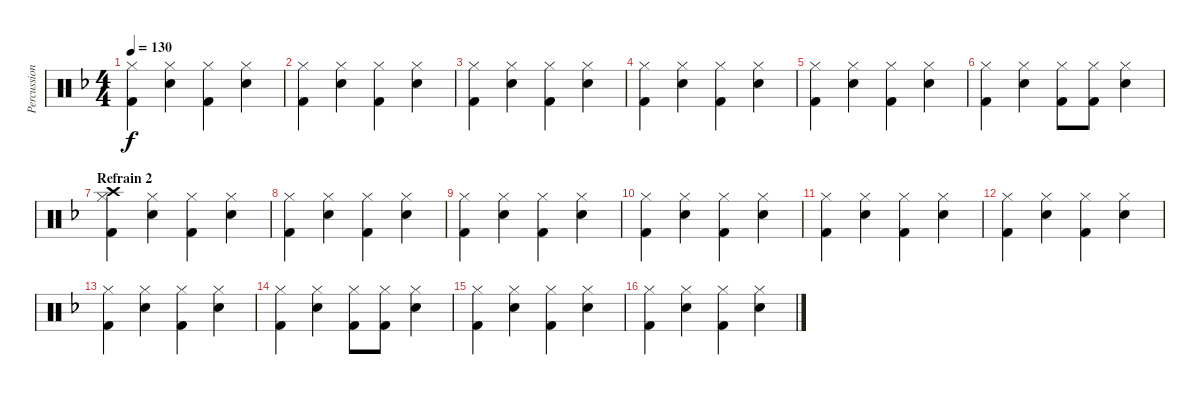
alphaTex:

\track ("Percussions" "Percussion") {instrument percussion}
\staff {score}
\articulation defaults
\ts (4 4)
\tempo 130
\clef neutral
\ks f
("Kick (hit) 2" "Hi-Hat (closed)").4{dy f} ("Snare (hit) 2" "Hi-Hat (closed)").4 ("Kick (hit) 2" "Hi-Hat (closed)").4 ("Snare (hit) 2" "Hi-Hat (closed)").4 |
("Kick (hit) 2" "Hi-Hat (closed)").4 ("Snare (hit) 2" "Hi-Hat (closed)").4 ("Kick (hit) 2" "Hi-Hat (closed)").4 ("Snare (hit) 2" "Hi-Hat (closed)").4 |
("Kick (hit) 2" "Hi-Hat (closed)").4 ("Snare (hit) 2" "Hi-Hat (closed)").4 ("Kick (hit) 2" "Hi-Hat (closed)").4 ("Snare (hit) 2" "Hi-Hat (closed)").4 |
("Kick (hit) 2" "Hi-Hat (closed)").4 ("Snare (hit) 2" "Hi-Hat (closed)").4 ("Kick (hit) 2" "Hi-Hat (closed)").4 ("Snare (hit) 2" "Hi-Hat (closed)").4 |
("Kick (hit) 2" "Hi-Hat (closed)").4 ("Snare (hit) 2" "Hi-Hat (closed)").4 ("Kick (hit) 2" "Hi-Hat (closed)").4 ("Snare (hit) 2" "Hi-Hat (closed)").4 |
("Kick (hit) 2" "Hi-Hat (closed)").4 ("Snare (hit) 2" "Hi-Hat (closed)").4 ("Kick (hit) 2" "Hi-Hat (closed)").8 ("Kick (hit) 2" "Hi-Hat (closed)").8 ("Snare (hit) 2" "Hi-Hat (closed)").4 |
\section ("" "Refrain 2")
("Kick (hit) 2" "Hi-Hat (closed)" "Crash high (hit)").4 ("Snare (hit) 2" "Hi-Hat (closed)").4 ("Kick (hit) 2" "Hi-Hat (closed)").4 ("Snare (hit) 2" "Hi-Hat (closed)").4 |
("Kick (hit) 2" "Hi-Hat (closed)").4 ("Snare (hit) 2" "Hi-Hat (closed)").4 ("Kick (hit) 2" "Hi-Hat (closed)").4 ("Snare (hit) 2" "Hi-Hat (closed)").4 |
("Kick (hit) 2" "Hi-Hat (closed)").4 ("Snare (hit) 2" "Hi-Hat (closed)").4 ("Kick (hit) 2" "Hi-Hat (closed)").4 ("Snare (hit) 2" "Hi-Hat (closed)").4 |
("Kick (hit) 2" "Hi-Hat (closed)").4 ("Snare (hit) 2" "Hi-Hat (closed)").4 ("Kick (hit) 2" "Hi-Hat (closed)").4 ("Snare (hit) 2" "Hi-Hat (closed)").4 |
("Kick (hit) 2" "Hi-Hat (closed)").4 ("Snare (hit) 2" "Hi-Hat (closed)").4 ("Kick (hit) 2" "Hi-Hat (closed)").4 ("Snare (hit) 2" "Hi-Hat (closed)").4 |
("Kick (hit) 2" "Hi-Hat (closed)").4 ("Snare (hit) 2" "Hi-Hat (closed)").4 ("Kick (hit) 2" "Hi-Hat (closed)").4 ("Snare (hit) 2" "Hi-Hat (closed)").4 |
("Kick (hit) 2" "Hi-Hat (closed)").4 ("Snare (hit) 2" "Hi-Hat (closed)").4 ("Kick (hit) 2" "Hi-Hat (closed)").4 ("Snare (hit) 2" "Hi-Hat (closed)").4 |
("Kick (hit) 2" "Hi-Hat (closed)").4 ("Snare (hit) 2" "Hi-Hat (closed)").4 ("Kick (hit) 2" "Hi-Hat (closed)").8 ("Kick (hit) 2" "Hi-Hat (closed)").8 ("Snare (hit) 2" "Hi-Hat (closed)").4 |
("Kick (hit) 2" "Hi-Hat (closed)").4 ("Snare (hit) 2" "Hi-Hat (closed)").4 ("Kick (hit) 2" "Hi-Hat (closed)").4 ("Snare (hit) 2" "Hi-Hat (closed)").4 |
("Kick (hit) 2" "Hi-Hat (closed)").4 ("Snare (hit) 2" "Hi-Hat (closed)").4 ("Kick (hit) 2" "Hi-Hat (closed)").4 ("Snare (hit) 2" "Hi-Hat (closed)").4
